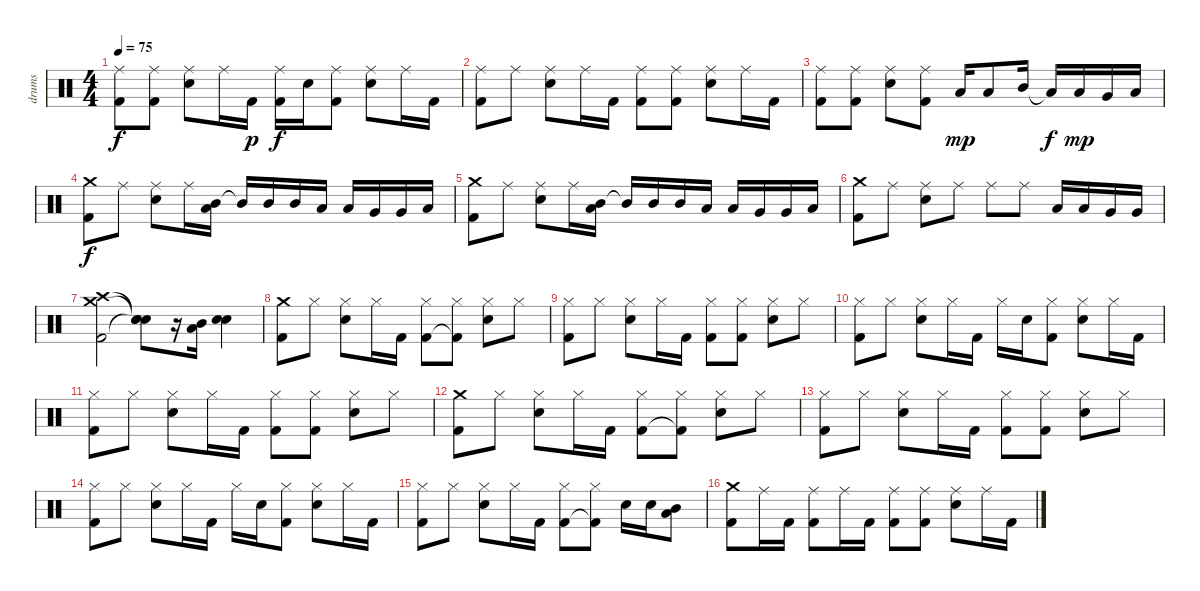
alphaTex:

\track ("drums" "drums") {instrument percussion}
\staff {score}
\articulation defaults
\ts (4 4)
\tempo 75
\clef neutral
\ks c
("Ride (middle)" "Kick (hit) 2").8{dy f} ("Ride (middle)" "Kick (hit) 2").8 ("Ride (middle)" "Snare (hit) 2").8 "Ride (middle)".16 "Kick (hit) 2".16{dy p} ("Ride (middle)" "Kick (hit) 2").16{dy f} "Snare (hit) 2".16 ("Ride (middle)" "Kick (hit) 2").8 ("Ride (middle)" "Snare (hit) 2").8 "Ride (middle)".16 "Kick (hit) 2".16 |
("Ride (middle)" "Kick (hit) 2").8 "Ride (middle)".8 ("Ride (middle)" "Snare (hit) 2").8 "Ride (middle)".16 "Kick (hit) 2".16 ("Ride (middle)" "Kick (hit) 2").8 ("Ride (middle)" "Kick (hit) 2").8 ("Ride (middle)" "Snare (hit) 2").8 "Ride (middle)".16 "Kick (hit) 2".16 |
("Ride (middle)" "Kick (hit) 2").8 ("Ride (middle)" "Kick (hit) 2").8 ("Ride (middle)" "Snare (hit) 2").8 ("Ride (middle)" "Kick (hit) 2").8 "Low Tom (hit)".16{dy mp} "Low Tom (hit)".8 "Mid Tom (hit)".16 "Low Tom (hit)"{t}.16{dy f} "Low Tom (hit)".16{dy mp} "Very Low Tom (hit)".16 "Low Floor Tom (hit)".16 |
("Crash medium (hit)" "Kick (hit) 2").8{dy f} "Ride (middle)".8 ("Ride (middle)" "Snare (hit) 2").8 "Ride (middle)".16 ("Mid Tom (hit)" "Low Tom (hit)").16 "Mid Tom (hit)"{t}.16 "Mid Tom (hit)".16 "Mid Tom (hit)".16 "Low Tom (hit)".16 "Low Tom (hit)".16 "Very Low Tom (hit)".16 "Very Low Tom (hit)".16 "Low Floor Tom (hit)".16 |
("Crash medium (hit)" "Kick (hit) 2").8 "Ride (middle)".8 ("Ride (middle)" "Snare (hit) 2").8 "Ride (middle)".16 ("Mid Tom (hit)" "Low Tom (hit)").16 "Mid Tom (hit)"{t}.16 "Mid Tom (hit)".16 "Mid Tom (hit)".16 "Low Tom (hit)".16 "Low Tom (hit)".16 "Very Low Tom (hit)".16 "Very Low Tom (hit)".16 "Low Floor Tom (hit)".16 |
("Crash medium (hit)" "Kick (hit) 2").8 "Ride (middle)".8 ("Ride (middle)" "Snare (hit) 2").8 "Ride (middle)".8 "Ride (middle)".8 "Ride (middle)".8 "Low Tom (hit)".16 "Low Tom (hit)".16 "Very Low Tom (hit)".16 "Very Low Tom (hit)".16 |
("Crash medium (hit)" "Crash high (hit)" "Kick (hit) 2").2 ("Snare (hit)"{t} "Snare (hit)"{t} "Snare (hit)"{t}).8 r.16 ("Low Tom (hit)" "Mid Tom (hit)").16 ("Electric Snare (hit)" "Electric Snare (hit)").4 |
("Crash medium (hit)" "Kick (hit) 2").8 "Hi-Hat (closed)".8 ("Hi-Hat (closed)" "Snare (hit) 2").8 "Hi-Hat (closed)".16 "Kick (hit) 2".16 ("Hi-Hat (closed)" "Kick (hit) 2").8 ("Hi-Hat (closed)" "Kick (hit) 2"{t}).8 ("Hi-Hat (closed)" "Snare (hit) 2").8 "Hi-Hat (closed)".8 |
("Hi-Hat (closed)" "Kick (hit) 2").8 "Hi-Hat (closed)".8 ("Hi-Hat (closed)" "Snare (hit) 2").8 "Hi-Hat (closed)".16 "Kick (hit) 2".16 ("Hi-Hat (closed)" "Kick (hit) 2").8 ("Hi-Hat (closed)" "Kick (hit) 2").8 ("Hi-Hat (closed)" "Snare (hit) 2").8 "Hi-Hat (closed)".8 |
("Hi-Hat (closed)" "Kick (hit) 2").8 "Hi-Hat (closed)".8 ("Hi-Hat (closed)" "Snare (hit) 2").8 "Hi-Hat (closed)".16 "Kick (hit) 2".16 "Hi-Hat (closed)".16 "Snare (hit) 2".16 ("Hi-Hat (closed)" "Kick (hit) 2").8 ("Hi-Hat (closed)" "Snare (hit) 2").8 "Hi-Hat (closed)".16 "Kick (hit) 2".16 |
("Hi-Hat (closed)" "Kick (hit) 2").8 "Hi-Hat (closed)".8 ("Hi-Hat (closed)" "Snare (hit) 2").8 "Hi-Hat (closed)".16 "Kick (hit) 2".16 ("Hi-Hat (closed)" "Kick (hit) 2").8 ("Hi-Hat (closed)" "Kick (hit) 2").8 ("Hi-Hat (closed)" "Snare (hit) 2").8 "Hi-Hat (closed)".8 |
("Crash medium (hit)" "Kick (hit) 2").8 "Hi-Hat (closed)".8 ("Hi-Hat (closed)" "Snare (hit) 2").8 "Hi-Hat (closed)".16 "Kick (hit) 2".16 ("Hi-Hat (closed)" "Kick (hit) 2").8 ("Hi-Hat (closed)" "Kick (hit) 2"{t}).8 ("Hi-Hat (closed)" "Snare (hit) 2").8 "Hi-Hat (closed)".8 |
("Hi-Hat (closed)" "Kick (hit) 2").8 "Hi-Hat (closed)".8 ("Hi-Hat (closed)" "Snare (hit) 2").8 "Hi-Hat (closed)".16 "Kick (hit) 2".16 ("Hi-Hat (closed)" "Kick (hit) 2").8 ("Hi-Hat (closed)" "Kick (hit) 2").8 ("Hi-Hat (closed)" "Snare (hit) 2").8 "Hi-Hat (closed)".8 |
("Hi-Hat (closed)" "Kick (hit) 2").8 "Hi-Hat (closed)".8 ("Hi-Hat (closed)" "Snare (hit) 2").8 "Hi-Hat (closed)".16 "Kick (hit) 2".16 "Hi-Hat (closed)".16 "Snare (hit) 2".16 ("Hi-Hat (closed)" "Kick (hit) 2").8 ("Hi-Hat (closed)" "Snare (hit) 2").8 "Hi-Hat (closed)".16 "Kick (hit) 2".16 |
("Hi-Hat (closed)" "Kick (hit) 2").8 "Hi-Hat (closed)".8 ("Hi-Hat (closed)" "Snare (hit) 2").8 "Hi-Hat (closed)".16 "Kick (hit) 2".16 ("Hi-Hat (closed)" "Kick (hit) 2").8 ("Hi-Hat (closed)" "Kick (hit) 2"{t}).8 "Snare (hit) 2".16 "Snare (hit) 2".16 ("Mid Tom (hit)" "Low Tom (hit)").8 |
("Crash medium (hit)" "Kick (hit) 2").8 "Ride (middle)".16 "Kick (hit) 2".16 ("Ride (middle)" "Kick (hit) 2").8 "Ride (middle)".16 "Kick (hit) 2".16 ("Ride (middle)" "Kick (hit) 2").8 ("Ride (middle)" "Kick (hit) 2").8 ("Ride (middle)" "Snare (hit) 2").8 "Ride (middle)".16 "Kick (hit) 2".16
